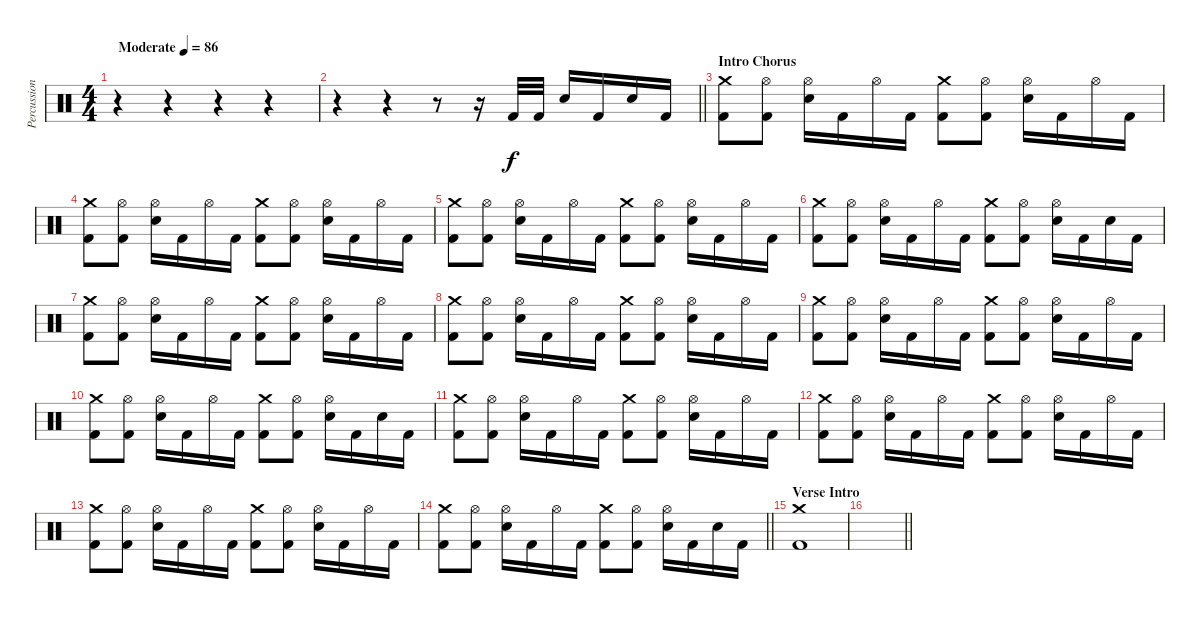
\track ("Percussioni" "Percussion") {instrument percussion}
\staff {score}
\articulation defaults
\ts (4 4)
\tempo (86 "Moderate")
\clef neutral
\ks c
r.4{dy f} r.4 r.4 r.4 |
\barLineRight lightlight
r.4 r.4 r.8 r.16 "Kick (hit) 2".32 "Kick (hit) 2".32 "Snare (hit) 2".16 "Kick (hit) 2".16 "Snare (hit) 2".16 "Kick (hit) 2".16 |
\section ("" "Intro Chorus")
("Crash medium (hit)" "Kick (hit) 2").8 ("Hi-Hat (open)" "Kick (hit) 2").8 ("Hi-Hat (open)" "Snare (hit) 2").16 "Kick (hit) 2".16 "Hi-Hat (open)".16 "Kick (hit) 2".16 ("Crash medium (hit)" "Kick (hit) 2").8 ("Hi-Hat (open)" "Kick (hit) 2").8 ("Hi-Hat (open)" "Snare (hit) 2").16 "Kick (hit) 2".16 "Hi-Hat (open)".16 "Kick (hit) 2".16 |
("Crash medium (hit)" "Kick (hit) 2").8 ("Hi-Hat (open)" "Kick (hit) 2").8 ("Hi-Hat (open)" "Snare (hit) 2").16 "Kick (hit) 2".16 "Hi-Hat (open)".16 "Kick (hit) 2".16 ("Crash medium (hit)" "Kick (hit) 2").8 ("Hi-Hat (open)" "Kick (hit) 2").8 ("Hi-Hat (open)" "Snare (hit) 2").16 "Kick (hit) 2".16 "Hi-Hat (open)".16 "Kick (hit) 2".16 |
("Crash medium (hit)" "Kick (hit) 2").8 ("Hi-Hat (open)" "Kick (hit) 2").8 ("Hi-Hat (open)" "Snare (hit) 2").16 "Kick (hit) 2".16 "Hi-Hat (open)".16 "Kick (hit) 2".16 ("Crash medium (hit)" "Kick (hit) 2").8 ("Hi-Hat (open)" "Kick (hit) 2").8 ("Hi-Hat (open)" "Snare (hit) 2").16 "Kick (hit) 2".16 "Hi-Hat (open)".16 "Kick (hit) 2".16 |
("Crash medium (hit)" "Kick (hit) 2").8 ("Hi-Hat (open)" "Kick (hit) 2").8 ("Hi-Hat (open)" "Snare (hit) 2").16 "Kick (hit) 2".16 "Hi-Hat (open)".16 "Kick (hit) 2".16 ("Crash medium (hit)" "Kick (hit) 2").8 ("Hi-Hat (open)" "Kick (hit) 2").8 ("Hi-Hat (open)" "Snare (hit) 2").16 "Kick (hit) 2".16 "Snare (hit) 2".16 "Kick (hit) 2".16 |
("Crash medium (hit)" "Kick (hit) 2").8 ("Hi-Hat (open)" "Kick (hit) 2").8 ("Hi-Hat (open)" "Snare (hit) 2").16 "Kick (hit) 2".16 "Hi-Hat (open)".16 "Kick (hit) 2".16 ("Crash medium (hit)" "Kick (hit) 2").8 ("Hi-Hat (open)" "Kick (hit) 2").8 ("Hi-Hat (open)" "Snare (hit) 2").16 "Kick (hit) 2".16 "Hi-Hat (open)".16 "Kick (hit) 2".16 |
("Crash medium (hit)" "Kick (hit) 2").8 ("Hi-Hat (open)" "Kick (hit) 2").8 ("Hi-Hat (open)" "Snare (hit) 2").16 "Kick (hit) 2".16 "Hi-Hat (open)".16 "Kick (hit) 2".16 ("Crash medium (hit)" "Kick (hit) 2").8 ("Hi-Hat (open)" "Kick (hit) 2").8 ("Hi-Hat (open)" "Snare (hit) 2").16 "Kick (hit) 2".16 "Hi-Hat (open)".16 "Kick (hit) 2".16 |
("Crash medium (hit)" "Kick (hit) 2").8 ("Hi-Hat (open)" "Kick (hit) 2").8 ("Hi-Hat (open)" "Snare (hit) 2").16 "Kick (hit) 2".16 "Hi-Hat (open)".16 "Kick (hit) 2".16 ("Crash medium (hit)" "Kick (hit) 2").8 ("Hi-Hat (open)" "Kick (hit) 2").8 ("Hi-Hat (open)" "Snare (hit) 2").16 "Kick (hit) 2".16 "Hi-Hat (open)".16 "Kick (hit) 2".16 |
("Crash medium (hit)" "Kick (hit) 2").8 ("Hi-Hat (open)" "Kick (hit) 2").8 ("Hi-Hat (open)" "Snare (hit) 2").16 "Kick (hit) 2".16 "Hi-Hat (open)".16 "Kick (hit) 2".16 ("Crash medium (hit)" "Kick (hit) 2").8 ("Hi-Hat (open)" "Kick (hit) 2").8 ("Hi-Hat (open)" "Snare (hit) 2").16 "Kick (hit) 2".16 "Snare (hit) 2".16 "Kick (hit) 2".16 |
("Crash medium (hit)" "Kick (hit) 2").8 ("Hi-Hat (open)" "Kick (hit) 2").8 ("Hi-Hat (open)" "Snare (hit) 2").16 "Kick (hit) 2".16 "Hi-Hat (open)".16 "Kick (hit) 2".16 ("Crash medium (hit)" "Kick (hit) 2").8 ("Hi-Hat (open)" "Kick (hit) 2").8 ("Hi-Hat (open)" "Snare (hit) 2").16 "Kick (hit) 2".16 "Hi-Hat (open)".16 "Kick (hit) 2".16 |
("Crash medium (hit)" "Kick (hit) 2").8 ("Hi-Hat (open)" "Kick (hit) 2").8 ("Hi-Hat (open)" "Snare (hit) 2").16 "Kick (hit) 2".16 "Hi-Hat (open)".16 "Kick (hit) 2".16 ("Crash medium (hit)" "Kick (hit) 2").8 ("Hi-Hat (open)" "Kick (hit) 2").8 ("Hi-Hat (open)" "Snare (hit) 2").16 "Kick (hit) 2".16 "Hi-Hat (open)".16 "Kick (hit) 2".16 |
("Crash medium (hit)" "Kick (hit) 2").8 ("Hi-Hat (open)" "Kick (hit) 2").8 ("Hi-Hat (open)" "Snare (hit) 2").16 "Kick (hit) 2".16 "Hi-Hat (open)".16 "Kick (hit) 2".16 ("Crash medium (hit)" "Kick (hit) 2").8 ("Hi-Hat (open)" "Kick (hit) 2").8 ("Hi-Hat (open)" "Snare (hit) 2").16 "Kick (hit) 2".16 "Hi-Hat (open)".16 "Kick (hit) 2".16 |
\barLineRight lightlight
("Crash medium (hit)" "Kick (hit) 2").8 ("Hi-Hat (open)" "Kick (hit) 2").8 ("Hi-Hat (open)" "Snare (hit) 2").16 "Kick (hit) 2".16 "Hi-Hat (open)".16 "Kick (hit) 2".16 ("Crash medium (hit)" "Kick (hit) 2").8 ("Hi-Hat (open)" "Kick (hit) 2").8 ("Hi-Hat (open)" "Snare (hit) 2").16 "Kick (hit) 2".16 "Snare (hit) 2".16 "Kick (hit) 2".16 |
\section ("" "Verse Intro")
("Crash medium (hit)" "Kick (hit) 2").1 |
\barLineRight lightlight
